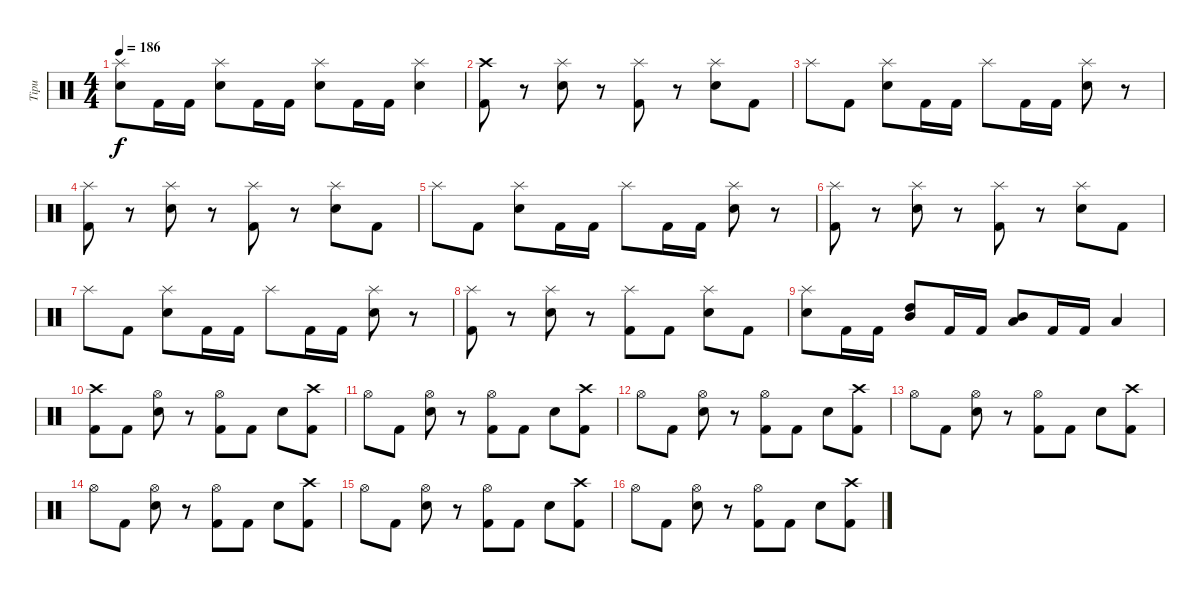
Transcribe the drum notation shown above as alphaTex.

\track ("Tipu" "Tipu") {instrument percussion}
\staff {score}
\articulation defaults
\ts (4 4)
\tempo 186
\clef neutral
\ks c
("Splash (hit)" "Electric Snare (hit)").8{dy f} "Kick (hit) 2".16 "Kick (hit) 2".16 ("Splash (hit)" "Electric Snare (hit)").8 "Kick (hit) 2".16 "Kick (hit) 2".16 ("Splash (hit)" "Electric Snare (hit)").8 "Kick (hit) 2".16 "Kick (hit) 2".16 ("Splash (hit)" "Electric Snare (hit)").4 |
("Crash high (hit)" "Kick (hit) 2").8 r.8 ("Splash (hit)" "Electric Snare (hit)").8 r.8 ("Splash (hit)" "Kick (hit) 2").8 r.8 ("Splash (hit)" "Electric Snare (hit)").8 "Kick (hit) 2".8 |
"Splash (hit)".8 "Kick (hit) 2".8 ("Splash (hit)" "Electric Snare (hit)").8 "Kick (hit) 2".16 "Kick (hit) 2".16 "Splash (hit)".8 "Kick (hit) 2".16 "Kick (hit) 2".16 ("Splash (hit)" "Electric Snare (hit)").8 r.8 |
("Splash (hit)" "Kick (hit) 2").8 r.8 ("Splash (hit)" "Electric Snare (hit)").8 r.8 ("Splash (hit)" "Kick (hit) 2").8 r.8 ("Splash (hit)" "Electric Snare (hit)").8 "Kick (hit) 2".8 |
"Splash (hit)".8 "Kick (hit) 2".8 ("Splash (hit)" "Electric Snare (hit)").8 "Kick (hit) 2".16 "Kick (hit) 2".16 "Splash (hit)".8 "Kick (hit) 2".16 "Kick (hit) 2".16 ("Splash (hit)" "Electric Snare (hit)").8 r.8 |
("Splash (hit)" "Kick (hit) 2").8 r.8 ("Splash (hit)" "Electric Snare (hit)").8 r.8 ("Splash (hit)" "Kick (hit) 2").8 r.8 ("Splash (hit)" "Electric Snare (hit)").8 "Kick (hit) 2".8 |
"Splash (hit)".8 "Kick (hit) 2".8 ("Splash (hit)" "Electric Snare (hit)").8 "Kick (hit) 2".16 "Kick (hit) 2".16 "Splash (hit)".8 "Kick (hit) 2".16 "Kick (hit) 2".16 ("Splash (hit)" "Electric Snare (hit)").8 r.8 |
("Splash (hit)" "Kick (hit) 2").8 r.8 ("Splash (hit)" "Electric Snare (hit)").8 r.8 ("Splash (hit)" "Kick (hit) 2").8 "Kick (hit) 2".8 ("Splash (hit)" "Electric Snare (hit)").8 "Kick (hit) 2".8 |
("Splash (hit)" "Electric Snare (hit)").8 "Kick (hit) 2".16 "Kick (hit) 2".16 ("High Tom (hit)" "Mid Tom (hit)").8 "Kick (hit) 2".16 "Kick (hit) 2".16 ("Mid Tom (hit)" "Low Tom (hit)").8 "Kick (hit) 2".16 "Kick (hit) 2".16 "Low Tom (hit)".4 |
("Crash high (hit)" "Kick (hit) 2").8 "Kick (hit) 2".8 ("Hi-Hat (open)" "Electric Snare (hit)").8 r.8 ("Hi-Hat (open)" "Kick (hit) 2").8 "Kick (hit) 2".8 "Electric Snare (hit)".8 ("Crash high (hit)" "Kick (hit) 2").8 |
"Hi-Hat (open)".8 "Kick (hit) 2".8 ("Hi-Hat (open)" "Electric Snare (hit)").8 r.8 ("Hi-Hat (open)" "Kick (hit) 2").8 "Kick (hit) 2".8 "Electric Snare (hit)".8 ("Crash high (hit)" "Kick (hit) 2").8 |
"Hi-Hat (open)".8 "Kick (hit) 2".8 ("Hi-Hat (open)" "Electric Snare (hit)").8 r.8 ("Hi-Hat (open)" "Kick (hit) 2").8 "Kick (hit) 2".8 "Electric Snare (hit)".8 ("Crash high (hit)" "Kick (hit) 2").8 |
"Hi-Hat (open)".8 "Kick (hit) 2".8 ("Hi-Hat (open)" "Electric Snare (hit)").8 r.8 ("Hi-Hat (open)" "Kick (hit) 2").8 "Kick (hit) 2".8 "Electric Snare (hit)".8 ("Crash high (hit)" "Kick (hit) 2").8 |
"Hi-Hat (open)".8 "Kick (hit) 2".8 ("Hi-Hat (open)" "Electric Snare (hit)").8 r.8 ("Hi-Hat (open)" "Kick (hit) 2").8 "Kick (hit) 2".8 "Electric Snare (hit)".8 ("Crash high (hit)" "Kick (hit) 2").8 |
"Hi-Hat (open)".8 "Kick (hit) 2".8 ("Hi-Hat (open)" "Electric Snare (hit)").8 r.8 ("Hi-Hat (open)" "Kick (hit) 2").8 "Kick (hit) 2".8 "Electric Snare (hit)".8 ("Crash high (hit)" "Kick (hit) 2").8 |
"Hi-Hat (open)".8 "Kick (hit) 2".8 ("Hi-Hat (open)" "Electric Snare (hit)").8 r.8 ("Hi-Hat (open)" "Kick (hit) 2").8 "Kick (hit) 2".8 "Electric Snare (hit)".8 ("Crash high (hit)" "Kick (hit) 2").8
